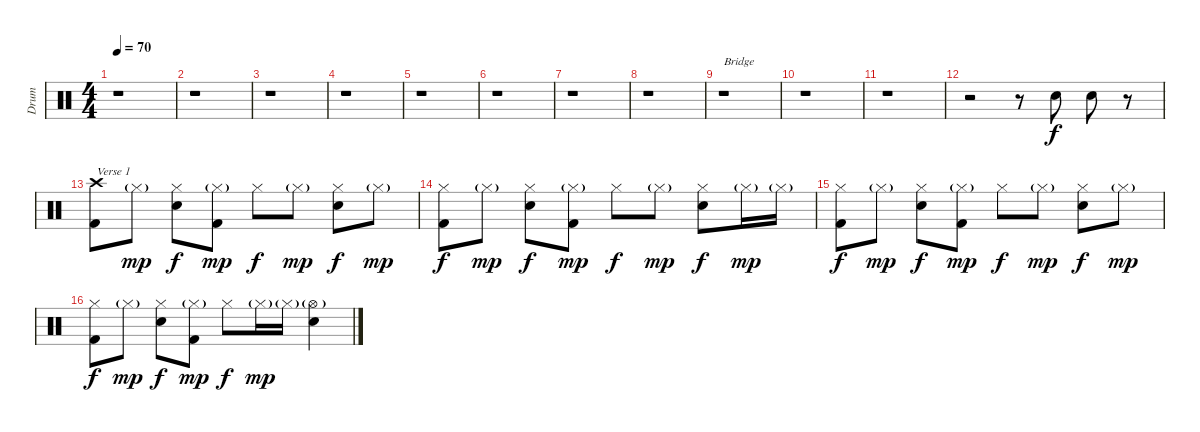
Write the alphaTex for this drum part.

\track ("Drum" "Drum") {instrument percussion}
\staff {score}
\articulation defaults
\ts (4 4)
\tempo 70
\clef neutral
\ks c
r.1{dy f} |
r.1 |
r.1 |
r.1 |
r.1 |
r.1 |
r.1 |
r.1 |
r.1{txt "Bridge"} |
r.1 |
r.1 |
r.2 r.8 "Snare (hit) 2".8 "Snare (hit) 2".8 r.8 |
("Crash high (hit)" "Kick (hit) 2").8{txt "Verse 1"} "Hi-Hat (closed)"{g}.8{dy mp} ("Hi-Hat (closed)" "Snare (hit) 2").8{dy f} ("Hi-Hat (closed)"{g} "Kick (hit) 2").8{dy mp} "Hi-Hat (closed)".8{dy f} "Hi-Hat (closed)"{g}.8{dy mp} ("Hi-Hat (closed)" "Snare (hit) 2").8{dy f} "Hi-Hat (closed)"{g}.8{dy mp} |
("Hi-Hat (closed)" "Kick (hit) 2").8{dy f} "Hi-Hat (closed)"{g}.8{dy mp} ("Hi-Hat (closed)" "Snare (hit) 2").8{dy f} ("Hi-Hat (closed)"{g} "Kick (hit) 2").8{dy mp} "Hi-Hat (closed)".8{dy f} "Hi-Hat (closed)"{g}.8{dy mp} ("Hi-Hat (closed)" "Snare (hit) 2").8{dy f} "Hi-Hat (closed)"{g}.16{dy mp} "Hi-Hat (closed)"{g}.16 |
("Hi-Hat (closed)" "Kick (hit) 2").8{dy f} "Hi-Hat (closed)"{g}.8{dy mp} ("Hi-Hat (closed)" "Snare (hit) 2").8{dy f} ("Hi-Hat (closed)"{g} "Kick (hit) 2").8{dy mp} "Hi-Hat (closed)".8{dy f} "Hi-Hat (closed)"{g}.8{dy mp} ("Hi-Hat (closed)" "Snare (hit) 2").8{dy f} "Hi-Hat (closed)"{g}.8{dy mp} |
("Hi-Hat (closed)" "Kick (hit) 2").8{dy f} "Hi-Hat (closed)"{g}.8{dy mp} ("Hi-Hat (closed)" "Snare (hit) 2").8{dy f} ("Hi-Hat (closed)"{g} "Kick (hit) 2").8{dy mp} "Hi-Hat (closed)".8{dy f} "Hi-Hat (closed)"{g}.16{dy mp} "Hi-Hat (closed)"{g}.16 ("Hi-Hat (open)"{g} "Snare (hit) 2").4
